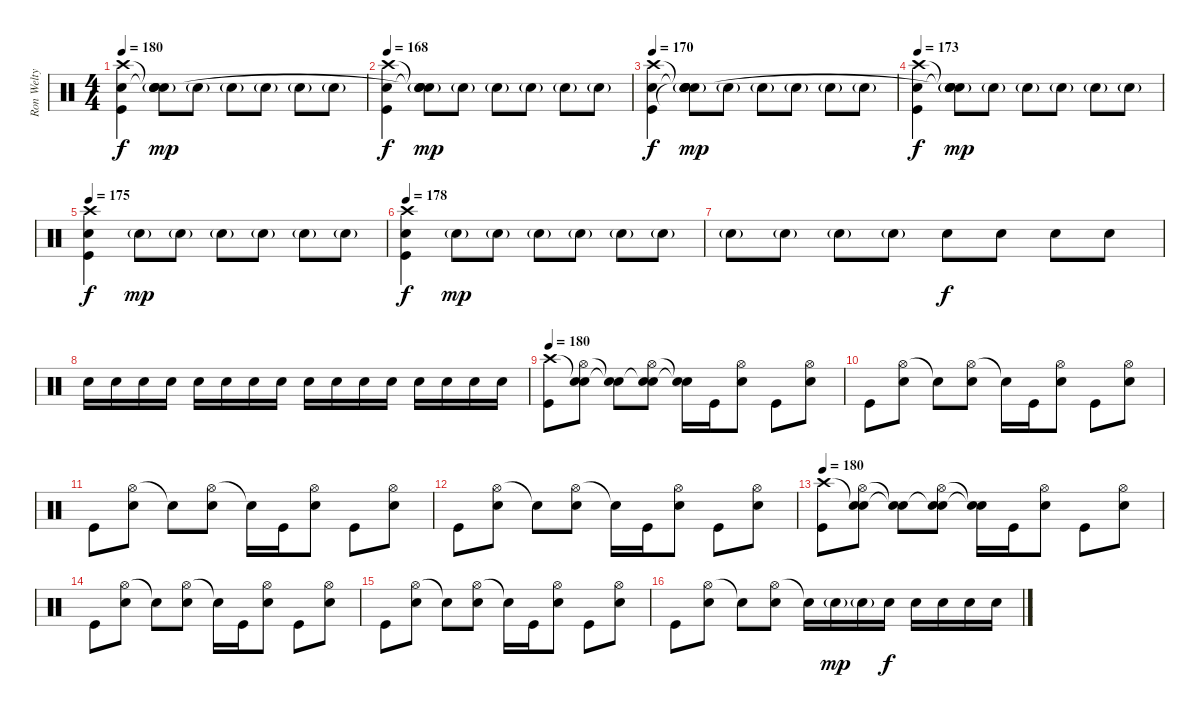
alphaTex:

\track ("Ron Welty" "Ron Welty") {instrument percussion}
\staff {score}
\articulation defaults
\ts (4 4)
\tempo 180
\tempo 165
\tempo 180
\clef neutral
\ks c
("Crash high (hit)" "Snare (hit) 2" "Kick (hit)").4{dy f} ("Snare (hit)"{t} "Snare (hit)"{t} "Snare (hit) 2"{g} "Snare (hit)").8{dy mp} "Snare (hit) 2"{g}.8 "Snare (hit) 2"{g}.8 "Snare (hit) 2"{g}.8 "Snare (hit) 2"{g}.8 "Snare (hit) 2"{g}.8 |
\tempo 168
("Crash high (hit)" "Snare (hit) 2" "Kick (hit)").4{dy f} ("Snare (hit)"{t} "Snare (hit)"{t} "Snare (hit) 2"{g} "Snare (hit)"{t}).8{dy mp} "Snare (hit) 2"{g}.8 "Snare (hit) 2"{g}.8 "Snare (hit) 2"{g}.8 "Snare (hit) 2"{g}.8 "Snare (hit) 2"{g}.8 |
\tempo 170
("Crash high (hit)" "Snare (hit) 2" "Kick (hit)").4{dy f} ("Snare (hit)"{t} "Snare (hit)"{t} "Snare (hit)"{t} "Snare (hit) 2"{g} "Snare (hit)").8{dy mp} "Snare (hit) 2"{g}.8 "Snare (hit) 2"{g}.8 "Snare (hit) 2"{g}.8 "Snare (hit) 2"{g}.8 "Snare (hit) 2"{g}.8 |
\tempo 173
("Crash high (hit)" "Snare (hit) 2" "Kick (hit)").4{dy f} ("Snare (hit)"{t} "Snare (hit)"{t} "Snare (hit) 2"{g} "Snare (hit)"{t}).8{dy mp} "Snare (hit) 2"{g}.8 "Snare (hit) 2"{g}.8 "Snare (hit) 2"{g}.8 "Snare (hit) 2"{g}.8 "Snare (hit) 2"{g}.8 |
\tempo 175
("Crash high (hit)" "Snare (hit) 2" "Kick (hit)").4{dy f} "Snare (hit) 2"{g}.8{dy mp} "Snare (hit) 2"{g}.8 "Snare (hit) 2"{g}.8 "Snare (hit) 2"{g}.8 "Snare (hit) 2"{g}.8 "Snare (hit) 2"{g}.8 |
\tempo 178
("Crash high (hit)" "Snare (hit) 2" "Kick (hit)").4{dy f} "Snare (hit) 2"{g}.8{dy mp} "Snare (hit) 2"{g}.8 "Snare (hit) 2"{g}.8 "Snare (hit) 2"{g}.8 "Snare (hit) 2"{g}.8 "Snare (hit) 2"{g}.8 |
"Snare (hit) 2"{g}.8 "Snare (hit) 2"{g}.8 "Snare (hit) 2"{g}.8 "Snare (hit) 2"{g}.8 "Snare (hit) 2".8{dy f} "Snare (hit) 2".8 "Snare (hit) 2".8 "Snare (hit) 2".8 |
"Snare (hit) 2".16 "Snare (hit) 2".16 "Snare (hit) 2".16 "Snare (hit) 2".16 "Snare (hit) 2".16 "Snare (hit) 2".16 "Snare (hit) 2".16 "Snare (hit) 2".16 "Snare (hit) 2".16 "Snare (hit) 2".16 "Snare (hit) 2".16 "Snare (hit) 2".16 "Snare (hit) 2".16 "Snare (hit) 2".16 "Snare (hit) 2".16 "Snare (hit) 2".16 |
\tempo 180
("Crash high (hit)" "Kick (hit)").8 ("Snare (hit)"{t} "Hi-Hat (open)" "Snare (hit) 2").8 ("Snare (hit)"{t} "Snare (hit)"{t}).8 ("Snare (hit)"{t} "Hi-Hat (open)" "Snare (hit) 2").8 ("Snare (hit)"{t} "Snare (hit)"{t}).16 "Kick (hit)".16 ("Hi-Hat (open)" "Snare (hit) 2").8 "Kick (hit)".8 ("Hi-Hat (open)" "Snare (hit) 2").8 |
"Kick (hit)".8 ("Hi-Hat (open)" "Snare (hit) 2").8 "Snare (hit)"{t}.8 ("Hi-Hat (open)" "Snare (hit) 2").8 "Snare (hit)"{t}.16 "Kick (hit)".16 ("Hi-Hat (open)" "Snare (hit) 2").8 "Kick (hit)".8 ("Hi-Hat (open)" "Snare (hit) 2").8 |
"Kick (hit)".8 ("Hi-Hat (open)" "Snare (hit) 2").8 "Snare (hit)"{t}.8 ("Hi-Hat (open)" "Snare (hit) 2").8 "Snare (hit)"{t}.16 "Kick (hit)".16 ("Hi-Hat (open)" "Snare (hit) 2").8 "Kick (hit)".8 ("Hi-Hat (open)" "Snare (hit) 2").8 |
"Kick (hit)".8 ("Hi-Hat (open)" "Snare (hit) 2").8 "Snare (hit)"{t}.8 ("Hi-Hat (open)" "Snare (hit) 2").8 "Snare (hit)"{t}.16 "Kick (hit)".16 ("Hi-Hat (open)" "Snare (hit) 2").8 "Kick (hit)".8 ("Hi-Hat (open)" "Snare (hit) 2").8 |
\tempo 180
("Crash high (hit)" "Kick (hit)").8 ("Snare (hit)"{t} "Hi-Hat (open)" "Snare (hit) 2").8 ("Snare (hit)"{t} "Snare (hit)"{t}).8 ("Snare (hit)"{t} "Hi-Hat (open)" "Snare (hit) 2").8 ("Snare (hit)"{t} "Snare (hit)"{t}).16 "Kick (hit)".16 ("Hi-Hat (open)" "Snare (hit) 2").8 "Kick (hit)".8 ("Hi-Hat (open)" "Snare (hit) 2").8 |
"Kick (hit)".8 ("Hi-Hat (open)" "Snare (hit) 2").8 "Snare (hit)"{t}.8 ("Hi-Hat (open)" "Snare (hit) 2").8 "Snare (hit)"{t}.16 "Kick (hit)".16 ("Hi-Hat (open)" "Snare (hit) 2").8 "Kick (hit)".8 ("Hi-Hat (open)" "Snare (hit) 2").8 |
"Kick (hit)".8 ("Hi-Hat (open)" "Snare (hit) 2").8 "Snare (hit)"{t}.8 ("Hi-Hat (open)" "Snare (hit) 2").8 "Snare (hit)"{t}.16 "Kick (hit)".16 ("Hi-Hat (open)" "Snare (hit) 2").8 "Kick (hit)".8 ("Hi-Hat (open)" "Snare (hit) 2").8 |
"Kick (hit)".8 ("Hi-Hat (open)" "Snare (hit) 2").8 "Snare (hit)"{t}.8 ("Hi-Hat (open)" "Snare (hit) 2").8 "Snare (hit)"{t}.16 "Snare (hit) 2"{g}.16{dy mp} "Snare (hit) 2"{g}.16 "Snare (hit) 2".16{dy f} "Snare (hit) 2".16 "Snare (hit) 2".16 "Snare (hit) 2".16 "Snare (hit) 2".16
